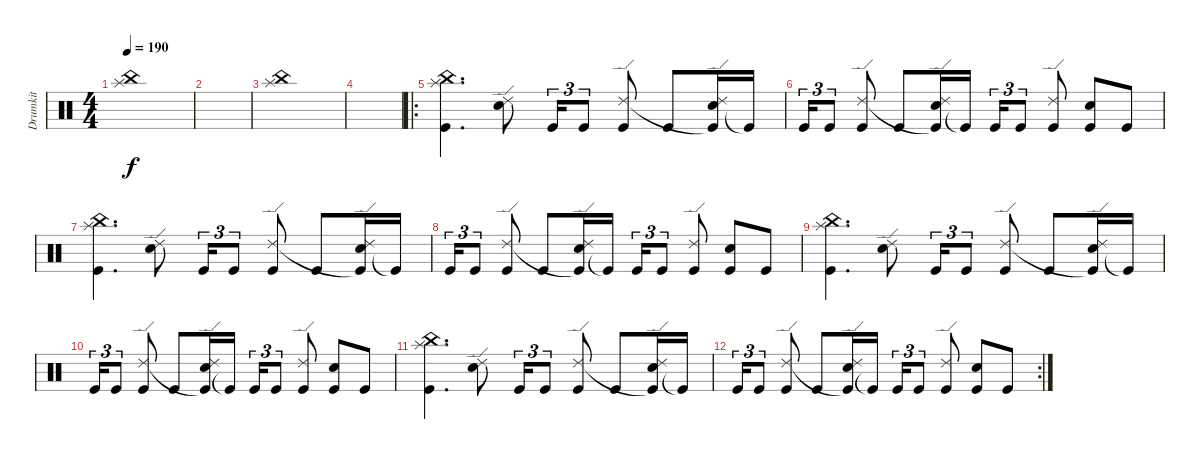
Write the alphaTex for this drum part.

\track ("Drumkit" "Drumkit") {instrument percussion}
\staff {score}
\articulation defaults
\ts (4 4)
\tempo 190
\clef neutral
\ks c
("China (hit)" "Splash (hit)").1{dy f} |
|
("China (hit)" "Splash (hit)").1 |
|
\ro
("Kick (hit)" "China (hit)" "Splash (hit)").4{d} ("Snare (hit) 2" "Ride (edge) 2").8 "Kick (hit)".16{tu (3 2)} "Kick (hit)".8{tu (3 2)} ("Kick (hit)" "Ride (edge) 2").8 "Kick (hit)".8 ("Snare (hit) 2" "Kick (hit)"{t} "Ride (edge) 2").16 "Kick (hit)"{t}.16 |
"Kick (hit)".16{tu (3 2)} "Kick (hit)".8{tu (3 2)} ("Kick (hit)" "Ride (edge) 2").8 "Kick (hit)".8 ("Snare (hit) 2" "Kick (hit)"{t} "Ride (edge) 2").16 "Kick (hit)"{t}.16 "Kick (hit)".16{tu (3 2)} "Kick (hit)".8{tu (3 2)} ("Kick (hit)" "Ride (edge) 2").8 ("Kick (hit)" "Snare (hit) 2").8 "Kick (hit)".8 |
("Kick (hit)" "China (hit)" "Splash (hit)").4{d} ("Snare (hit) 2" "Ride (edge) 2").8 "Kick (hit)".16{tu (3 2)} "Kick (hit)".8{tu (3 2)} ("Kick (hit)" "Ride (edge) 2").8 "Kick (hit)".8 ("Snare (hit) 2" "Kick (hit)"{t} "Ride (edge) 2").16 "Kick (hit)"{t}.16 |
"Kick (hit)".16{tu (3 2)} "Kick (hit)".8{tu (3 2)} ("Kick (hit)" "Ride (edge) 2").8 "Kick (hit)".8 ("Snare (hit) 2" "Kick (hit)"{t} "Ride (edge) 2").16 "Kick (hit)"{t}.16 "Kick (hit)".16{tu (3 2)} "Kick (hit)".8{tu (3 2)} ("Kick (hit)" "Ride (edge) 2").8 ("Kick (hit)" "Snare (hit) 2").8 "Kick (hit)".8 |
("Kick (hit)" "China (hit)" "Splash (hit)").4{d} ("Snare (hit) 2" "Ride (edge) 2").8 "Kick (hit)".16{tu (3 2)} "Kick (hit)".8{tu (3 2)} ("Kick (hit)" "Ride (edge) 2").8 "Kick (hit)".8 ("Snare (hit) 2" "Kick (hit)"{t} "Ride (edge) 2").16 "Kick (hit)"{t}.16 |
"Kick (hit)".16{tu (3 2)} "Kick (hit)".8{tu (3 2)} ("Kick (hit)" "Ride (edge) 2").8 "Kick (hit)".8 ("Snare (hit) 2" "Kick (hit)"{t} "Ride (edge) 2").16 "Kick (hit)"{t}.16 "Kick (hit)".16{tu (3 2)} "Kick (hit)".8{tu (3 2)} ("Kick (hit)" "Ride (edge) 2").8 ("Kick (hit)" "Snare (hit) 2").8 "Kick (hit)".8 |
("Kick (hit)" "China (hit)" "Splash (hit)").4{d} ("Snare (hit) 2" "Ride (edge) 2").8 "Kick (hit)".16{tu (3 2)} "Kick (hit)".8{tu (3 2)} ("Kick (hit)" "Ride (edge) 2").8 "Kick (hit)".8 ("Snare (hit) 2" "Kick (hit)"{t} "Ride (edge) 2").16 "Kick (hit)"{t}.16 |
\rc 2 "Kick (hit)".16{tu (3 2)} "Kick (hit)".8{tu (3 2)}
("Kick (hit)" "Ride (edge) 2").8 "Kick (hit)".8 ("Snare (hit) 2" "Kick (hit)"{t} "Ride (edge) 2").16 "Kick (hit)"{t}.16 "Kick (hit)".16{tu (3 2)} "Kick (hit)".8{tu (3 2)} ("Kick (hit)" "Ride (edge) 2").8 ("Kick (hit)" "Snare (hit) 2").8 "Kick (hit)".8
